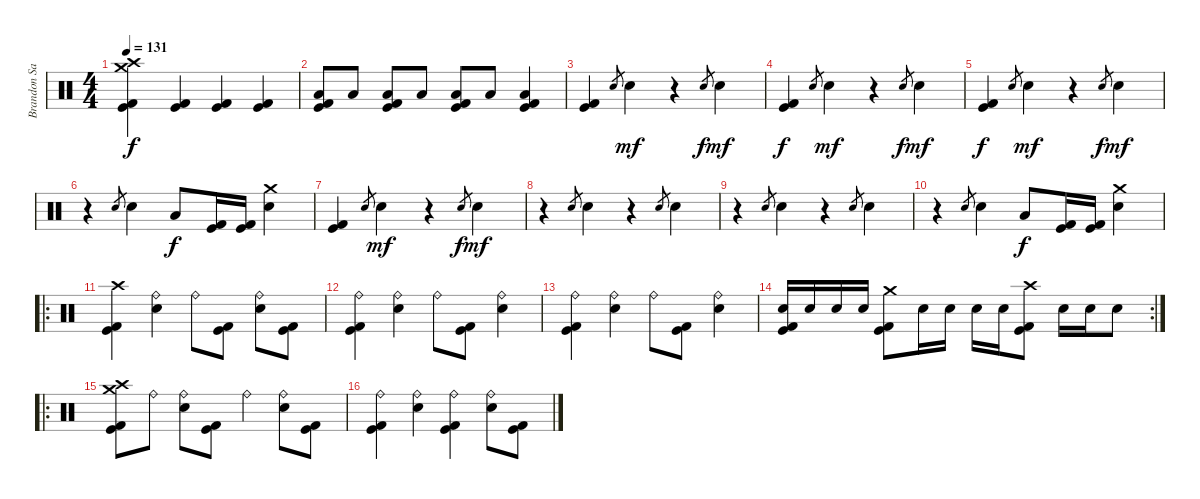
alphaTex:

\track ("Brandon Saller" "Brandon Sa") {instrument percussion}
\staff {score}
\articulation defaults
\ts (4 4)
\tempo 131
\clef neutral
\ks c
("Crash medium (hit)" "Crash high (hit)" "Kick (hit) 2" "Kick (hit)").4{dy f} ("Kick (hit) 2" "Kick (hit)").4 ("Kick (hit) 2" "Kick (hit)").4 ("Kick (hit) 2" "Kick (hit)").4 |
("Low Tom (hit)" "Kick (hit) 2" "Kick (hit)").8 "Low Tom (hit)".8 ("Low Tom (hit)" "Kick (hit) 2" "Kick (hit)").8 "Low Tom (hit)".8 ("Low Tom (hit)" "Kick (hit) 2" "Kick (hit)").8 "Low Tom (hit)".8 ("Low Tom (hit)" "Kick (hit) 2" "Kick (hit)").4 |
("Kick (hit) 2" "Kick (hit)").4 "Electric Snare (hit)".8{gr} "Electric Snare (hit)".4{dy mf} r.4 "Electric Snare (hit)".8{gr dy f} "Electric Snare (hit)".4{dy mf} |
("Kick (hit) 2" "Kick (hit)").4{dy f} "Electric Snare (hit)".8{gr} "Electric Snare (hit)".4{dy mf} r.4 "Electric Snare (hit)".8{gr dy f} "Electric Snare (hit)".4{dy mf} |
("Kick (hit) 2" "Kick (hit)").4{dy f} "Electric Snare (hit)".8{gr} "Electric Snare (hit)".4{dy mf} r.4 "Electric Snare (hit)".8{gr dy f} "Electric Snare (hit)".4{dy mf} |
r.4 "Electric Snare (hit)".8{gr} "Electric Snare (hit)".4 "Low Tom (hit)".8{dy f} ("Kick (hit) 2" "Kick (hit)").16 ("Kick (hit) 2" "Kick (hit)").16 ("Crash medium (hit)" "Electric Snare (hit)").4 |
("Kick (hit) 2" "Kick (hit)").4 "Electric Snare (hit)".8{gr} "Electric Snare (hit)".4{dy mf} r.4 "Electric Snare (hit)".8{gr dy f} "Electric Snare (hit)".4{dy mf} |
r.4 "Electric Snare (hit)".8{gr} "Electric Snare (hit)".4 r.4 "Electric Snare (hit)".8{gr} "Electric Snare (hit)".4 |
r.4 "Electric Snare (hit)".8{gr} "Electric Snare (hit)".4 r.4 "Electric Snare (hit)".8{gr} "Electric Snare (hit)".4 |
r.4 "Electric Snare (hit)".8{gr} "Electric Snare (hit)".4 "Low Tom (hit)".8{dy f} ("Kick (hit) 2" "Kick (hit)").16 ("Kick (hit) 2" "Kick (hit)").16 ("Crash medium (hit)" "Electric Snare (hit)").4 |
\ro
("Crash high (hit)" "Kick (hit) 2" "Kick (hit)").4 ("Ride (bell)" "Electric Snare (hit)").4 "Ride (bell)".8 ("Kick (hit) 2" "Kick (hit)").8 ("Ride (bell)" "Electric Snare (hit)").8 ("Kick (hit) 2" "Kick (hit)").8 |
("Ride (bell)" "Kick (hit) 2" "Kick (hit)").4 ("Ride (bell)" "Electric Snare (hit)").4 "Ride (bell)".8 ("Kick (hit) 2" "Kick (hit)").8 ("Ride (bell)" "Electric Snare (hit)").4 |
("Ride (bell)" "Kick (hit) 2" "Kick (hit)").4 ("Ride (bell)" "Electric Snare (hit)").4 "Ride (bell)".8 ("Kick (hit) 2" "Kick (hit)").8 ("Ride (bell)" "Electric Snare (hit)").4 |
\rc 2
("Electric Snare (hit)" "Kick (hit) 2" "Kick (hit)").16 "Electric Snare (hit)".16 "Electric Snare (hit)".16 "Electric Snare (hit)".16 ("Crash medium (hit)" "Kick (hit) 2" "Kick (hit)").8 "Electric Snare (hit)".16 "Electric Snare (hit)".16 "Electric Snare (hit)".16 "Electric Snare (hit)".16 ("Crash high (hit)" "Kick (hit)" "Kick (hit) 2").8 "Electric Snare (hit)".16 "Electric Snare (hit)".16 "Electric Snare (hit)".8 |
\ro
("Crash medium (hit)" "Crash high (hit)" "Kick (hit) 2" "Kick (hit)").8 "Ride (bell)".8 ("Ride (bell)" "Electric Snare (hit)").8 ("Kick (hit) 2" "Kick (hit)").8 "Ride (bell)".4 ("Ride (bell)" "Electric Snare (hit)").8 ("Kick (hit) 2" "Kick (hit)").8 |
("Ride (bell)" "Kick (hit) 2" "Kick (hit)").4 ("Ride (bell)" "Electric Snare (hit)").4 ("Ride (bell)" "Kick (hit) 2" "Kick (hit)").4 ("Ride (bell)" "Electric Snare (hit)").8 ("Kick (hit) 2" "Kick (hit)").8
